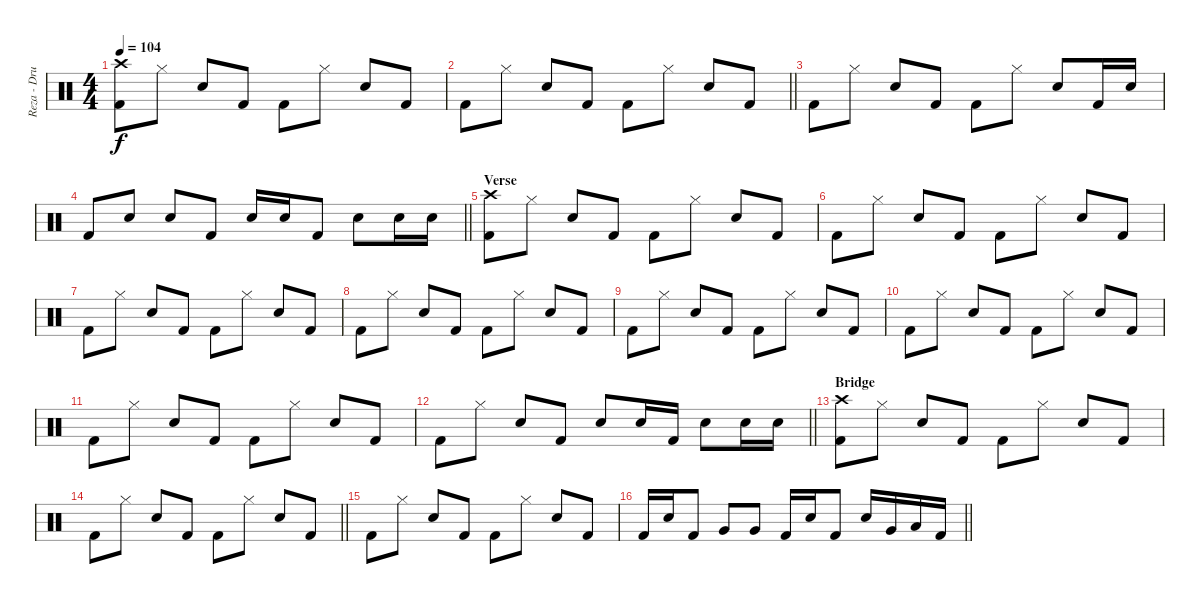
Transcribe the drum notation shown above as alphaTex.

\track ("Reza - Drums" "Reza - Dru") {instrument percussion}
\staff {score}
\articulation defaults
\ts (4 4)
\tempo 104
\clef neutral
\ks c
("Kick (hit) 2" "Crash high (hit)").8{dy f} "Hi-Hat (closed)".8 "Snare (hit) 2".8 "Kick (hit) 2".8 "Kick (hit) 2".8 "Hi-Hat (closed)".8 "Snare (hit) 2".8 "Kick (hit) 2".8 |
\barLineRight lightlight "Kick (hit) 2".8 "Hi-Hat (closed)".8 "Snare (hit) 2".8 "Kick (hit) 2".8 "Kick (hit) 2".8 "Hi-Hat (closed)".8 "Snare (hit) 2".8 "Kick (hit) 2".8
|
"Kick (hit) 2".8 "Hi-Hat (closed)".8 "Snare (hit) 2".8 "Kick (hit) 2".8 "Kick (hit) 2".8 "Hi-Hat (closed)".8 "Snare (hit) 2".8 "Kick (hit) 2".16 "Snare (hit) 2".16 |
\barLineRight lightlight "Kick (hit) 2".8 "Snare (hit) 2".8 "Snare (hit) 2".8 "Kick (hit) 2".8 "Snare (hit) 2".16 "Snare (hit) 2".16 "Kick (hit) 2".8 "Snare (hit) 2".8 "Snare (hit) 2".16 "Snare (hit) 2".16
|
\section ("" "Verse")
("Kick (hit) 2" "Crash high (hit)").8 "Hi-Hat (closed)".8 "Snare (hit) 2".8 "Kick (hit) 2".8 "Kick (hit) 2".8 "Hi-Hat (closed)".8 "Snare (hit) 2".8 "Kick (hit) 2".8 |
"Kick (hit) 2".8 "Hi-Hat (closed)".8 "Snare (hit) 2".8 "Kick (hit) 2".8 "Kick (hit) 2".8 "Hi-Hat (closed)".8 "Snare (hit) 2".8 "Kick (hit) 2".8 |
"Kick (hit) 2".8 "Hi-Hat (closed)".8 "Snare (hit) 2".8 "Kick (hit) 2".8 "Kick (hit) 2".8 "Hi-Hat (closed)".8 "Snare (hit) 2".8 "Kick (hit) 2".8 |
"Kick (hit) 2".8 "Hi-Hat (closed)".8 "Snare (hit) 2".8 "Kick (hit) 2".8 "Kick (hit) 2".8 "Hi-Hat (closed)".8 "Snare (hit) 2".8 "Kick (hit) 2".8 |
"Kick (hit) 2".8 "Hi-Hat (closed)".8 "Snare (hit) 2".8 "Kick (hit) 2".8 "Kick (hit) 2".8 "Hi-Hat (closed)".8 "Snare (hit) 2".8 "Kick (hit) 2".8 |
"Kick (hit) 2".8 "Hi-Hat (closed)".8 "Snare (hit) 2".8 "Kick (hit) 2".8 "Kick (hit) 2".8 "Hi-Hat (closed)".8 "Snare (hit) 2".8 "Kick (hit) 2".8 |
"Kick (hit) 2".8 "Hi-Hat (closed)".8 "Snare (hit) 2".8 "Kick (hit) 2".8 "Kick (hit) 2".8 "Hi-Hat (closed)".8 "Snare (hit) 2".8 "Kick (hit) 2".8 |
\barLineRight lightlight "Kick (hit) 2".8 "Hi-Hat (closed)".8 "Snare (hit) 2".8 "Kick (hit) 2".8 "Snare (hit) 2".8 "Snare (hit) 2".16 "Kick (hit) 2".16 "Snare (hit) 2".8 "Snare (hit) 2".16 "Snare (hit) 2".16
|
\section ("" "Bridge")
("Kick (hit) 2" "Crash high (hit)").8 "Hi-Hat (closed)".8 "Snare (hit) 2".8 "Kick (hit) 2".8 "Kick (hit) 2".8 "Hi-Hat (closed)".8 "Snare (hit) 2".8 "Kick (hit) 2".8 |
\barLineRight lightlight "Kick (hit) 2".8 "Hi-Hat (closed)".8 "Snare (hit) 2".8 "Kick (hit) 2".8 "Kick (hit) 2".8 "Hi-Hat (closed)".8 "Snare (hit) 2".8 "Kick (hit) 2".8
|
"Kick (hit) 2".8 "Hi-Hat (closed)".8 "Snare (hit) 2".8 "Kick (hit) 2".8 "Kick (hit) 2".8 "Hi-Hat (closed)".8 "Snare (hit) 2".8 "Kick (hit) 2".8 |
\barLineRight lightlight "Kick (hit) 2".16 "Snare (hit) 2".16 "Kick (hit) 2".8 "Very Low Tom (hit)".8 "Very Low Tom (hit)".8 "Kick (hit) 2".16 "Snare (hit) 2".16 "Kick (hit) 2".8 "Snare (hit) 2".16 "Very Low Tom (hit)".16 "Low Floor Tom (hit)".16 "Kick (hit) 2".16
